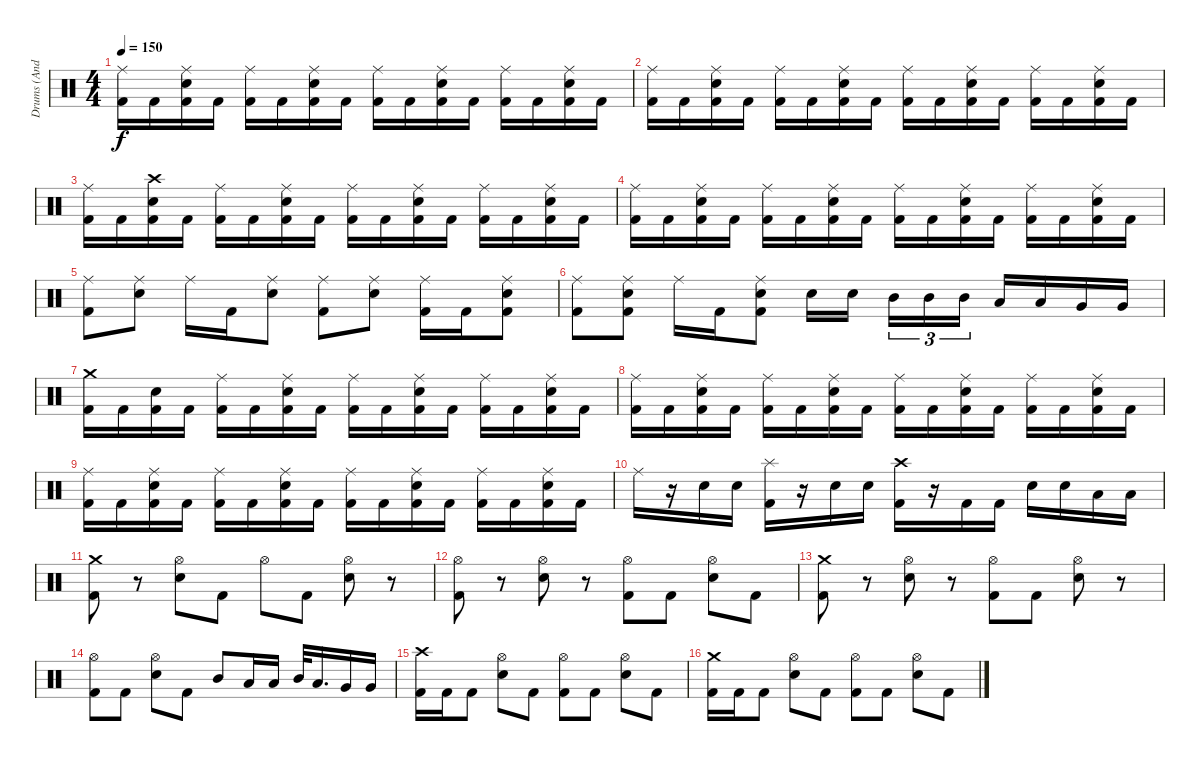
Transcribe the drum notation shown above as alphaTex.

\track ("Drums (Andy C)" "Drums (And") {instrument percussion}
\staff
\articulation defaults
\ts (4 4)
\tempo 150
\clef neutral
\ks c
("Ride (middle)" "Kick (hit) 2").16{dy f} "Kick (hit) 2".16 ("Ride (middle)" "Kick (hit) 2" "Electric Snare (hit)").16 "Kick (hit) 2".16 ("Ride (middle)" "Kick (hit) 2").16 "Kick (hit) 2".16 ("Ride (middle)" "Kick (hit) 2" "Electric Snare (hit)").16 "Kick (hit) 2".16 ("Ride (middle)" "Kick (hit) 2").16 "Kick (hit) 2".16 ("Ride (middle)" "Kick (hit) 2" "Electric Snare (hit)").16 "Kick (hit) 2".16 ("Ride (middle)" "Kick (hit) 2").16 "Kick (hit) 2".16 ("Ride (middle)" "Kick (hit) 2" "Electric Snare (hit)").16 "Kick (hit) 2".16 |
("Ride (middle)" "Kick (hit) 2").16 "Kick (hit) 2".16 ("Ride (middle)" "Kick (hit) 2" "Electric Snare (hit)").16 "Kick (hit) 2".16 ("Ride (middle)" "Kick (hit) 2").16 "Kick (hit) 2".16 ("Ride (middle)" "Kick (hit) 2" "Electric Snare (hit)").16 "Kick (hit) 2".16 ("Ride (middle)" "Kick (hit) 2").16 "Kick (hit) 2".16 ("Ride (middle)" "Kick (hit) 2" "Electric Snare (hit)").16 "Kick (hit) 2".16 ("Ride (middle)" "Kick (hit) 2").16 "Kick (hit) 2".16 ("Ride (middle)" "Kick (hit) 2" "Electric Snare (hit)").16 "Kick (hit) 2".16 |
("Ride (middle)" "Kick (hit) 2").16 "Kick (hit) 2".16 ("Crash high (hit)" "Kick (hit) 2" "Electric Snare (hit)").16 "Kick (hit) 2".16 ("Ride (middle)" "Kick (hit) 2").16 "Kick (hit) 2".16 ("Ride (middle)" "Kick (hit) 2" "Electric Snare (hit)").16 "Kick (hit) 2".16 ("Ride (middle)" "Kick (hit) 2").16 "Kick (hit) 2".16 ("Ride (middle)" "Kick (hit) 2" "Electric Snare (hit)").16 "Kick (hit) 2".16 ("Ride (middle)" "Kick (hit) 2").16 "Kick (hit) 2".16 ("Ride (middle)" "Kick (hit) 2" "Electric Snare (hit)").16 "Kick (hit) 2".16 |
("Ride (middle)" "Kick (hit) 2").16 "Kick (hit) 2".16 ("Ride (middle)" "Kick (hit) 2" "Electric Snare (hit)").16 "Kick (hit) 2".16 ("Ride (middle)" "Kick (hit) 2").16 "Kick (hit) 2".16 ("Ride (middle)" "Kick (hit) 2" "Electric Snare (hit)").16 "Kick (hit) 2".16 ("Ride (middle)" "Kick (hit) 2").16 "Kick (hit) 2".16 ("Ride (middle)" "Kick (hit) 2" "Electric Snare (hit)").16 "Kick (hit) 2".16 ("Ride (middle)" "Kick (hit) 2").16 "Kick (hit) 2".16 ("Ride (middle)" "Kick (hit) 2" "Electric Snare (hit)").16 "Kick (hit) 2".16 |
("Ride (middle)" "Kick (hit) 2").8 ("Ride (middle)" "Electric Snare (hit)").8 "Ride (middle)".16 "Kick (hit) 2".16 ("Ride (middle)" "Electric Snare (hit)").8 ("Ride (middle)" "Kick (hit) 2").8 ("Ride (middle)" "Electric Snare (hit)").8 ("Ride (middle)" "Kick (hit) 2").16 "Kick (hit) 2".16 ("Ride (middle)" "Kick (hit) 2" "Electric Snare (hit)").8 |
("Ride (middle)" "Kick (hit) 2").8 ("Ride (middle)" "Kick (hit) 2" "Electric Snare (hit)").8 "Ride (middle)".16 "Kick (hit) 2".16 ("Ride (middle)" "Kick (hit) 2" "Electric Snare (hit)").8 "Electric Snare (hit)".16 "Electric Snare (hit)".16{beam splitsecondary} "Mid Tom (hit)".16{tu (3 2)} "Mid Tom (hit)".16{tu (3 2)} "Mid Tom (hit)".16{tu (3 2)} "Low Tom (hit)".16 "Low Tom (hit)".16 "Very Low Tom (hit)".16 "Very Low Tom (hit)".16 |
("Crash medium (hit)" "Kick (hit) 2").16 "Kick (hit) 2".16 ("Kick (hit) 2" "Electric Snare (hit)").16 "Kick (hit) 2".16 ("Ride (middle)" "Kick (hit) 2").16 "Kick (hit) 2".16 ("Ride (middle)" "Kick (hit) 2" "Electric Snare (hit)").16 "Kick (hit) 2".16 ("Ride (middle)" "Kick (hit) 2").16 "Kick (hit) 2".16 ("Ride (middle)" "Kick (hit) 2" "Electric Snare (hit)").16 "Kick (hit) 2".16 ("Ride (middle)" "Kick (hit) 2").16 "Kick (hit) 2".16 ("Ride (middle)" "Kick (hit) 2" "Electric Snare (hit)").16 "Kick (hit) 2".16 |
("Ride (middle)" "Kick (hit) 2").16 "Kick (hit) 2".16 ("Ride (middle)" "Kick (hit) 2" "Electric Snare (hit)").16 "Kick (hit) 2".16 ("Ride (middle)" "Kick (hit) 2").16 "Kick (hit) 2".16 ("Ride (middle)" "Kick (hit) 2" "Electric Snare (hit)").16 "Kick (hit) 2".16 ("Ride (middle)" "Kick (hit) 2").16 "Kick (hit) 2".16 ("Ride (middle)" "Kick (hit) 2" "Electric Snare (hit)").16 "Kick (hit) 2".16 ("Ride (middle)" "Kick (hit) 2").16 "Kick (hit) 2".16 ("Ride (middle)" "Kick (hit) 2" "Electric Snare (hit)").16 "Kick (hit) 2".16 |
("Ride (middle)" "Kick (hit) 2").16 "Kick (hit) 2".16 ("Ride (middle)" "Kick (hit) 2" "Electric Snare (hit)").16 "Kick (hit) 2".16 ("Ride (middle)" "Kick (hit) 2").16 "Kick (hit) 2".16 ("Ride (middle)" "Kick (hit) 2" "Electric Snare (hit)").16 "Kick (hit) 2".16 ("Ride (middle)" "Kick (hit) 2").16 "Kick (hit) 2".16 ("Ride (middle)" "Kick (hit) 2" "Electric Snare (hit)").16 "Kick (hit) 2".16 ("Ride (middle)" "Kick (hit) 2").16 "Kick (hit) 2".16 ("Ride (middle)" "Kick (hit) 2" "Electric Snare (hit)").16 "Kick (hit) 2".16 |
"Ride (middle)".16 r.16 "Electric Snare (hit)".16 "Electric Snare (hit)".16 ("Splash (hit)" "Kick (hit) 2").16 r.16 "Electric Snare (hit)".16 "Electric Snare (hit)".16 ("Crash high (hit)" "Kick (hit) 2").16 r.16 "Kick (hit) 2".16 "Kick (hit) 2".16 "Electric Snare (hit)".16 "Electric Snare (hit)".16 "Low Tom (hit)".16 "Low Tom (hit)".16 |
("Crash medium (hit)" "Kick (hit) 2").8 r.8 ("Hi-Hat (open)" "Electric Snare (hit)").8 "Kick (hit) 2".8 "Hi-Hat (open)".8 "Kick (hit) 2".8 ("Hi-Hat (open)" "Electric Snare (hit)").8 r.8 |
("Hi-Hat (open)" "Kick (hit) 2").8 r.8 ("Hi-Hat (open)" "Electric Snare (hit)").8 r.8 ("Hi-Hat (open)" "Kick (hit) 2").8 "Kick (hit) 2".8 ("Hi-Hat (open)" "Electric Snare (hit)").8 "Kick (hit) 2".8 |
("Crash medium (hit)" "Kick (hit) 2").8 r.8 ("Hi-Hat (open)" "Electric Snare (hit)").8 r.8 ("Hi-Hat (open)" "Kick (hit) 2").8 "Kick (hit) 2".8 ("Hi-Hat (open)" "Electric Snare (hit)").8 r.8 |
("Hi-Hat (open)" "Kick (hit) 2").8 "Kick (hit) 2".8 ("Hi-Hat (open)" "Electric Snare (hit)").8 "Kick (hit) 2".8 "Mid Tom (hit)".8 "Low Tom (hit)".16 "Low Tom (hit)".16 "Mid Tom (hit)".32 "Low Tom (hit)".16{d} "Very Low Tom (hit)".16 "Very Low Tom (hit)".16 |
("Crash high (hit)" "Kick (hit) 2").16 "Kick (hit) 2".16 "Kick (hit) 2".8 ("Hi-Hat (open)" "Electric Snare (hit)").8 "Kick (hit) 2".8 ("Hi-Hat (open)" "Kick (hit) 2").8 "Kick (hit) 2".8 ("Hi-Hat (open)" "Electric Snare (hit)").8 "Kick (hit) 2".8 |
("Crash medium (hit)" "Kick (hit) 2").16 "Kick (hit) 2".16 "Kick (hit) 2".8 ("Hi-Hat (open)" "Electric Snare (hit)").8 "Kick (hit) 2".8 ("Hi-Hat (open)" "Kick (hit) 2").8 "Kick (hit) 2".8 ("Hi-Hat (open)" "Electric Snare (hit)").8 "Kick (hit) 2".8
